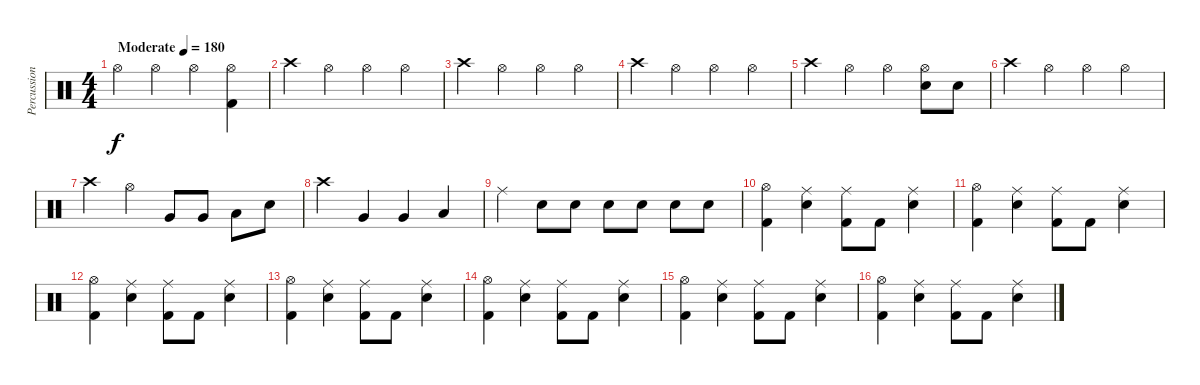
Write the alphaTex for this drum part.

\track ("Percussion" "Percussion") {instrument percussion}
\staff {score}
\articulation defaults
\ts (4 4)
\tempo (180 "Moderate")
\clef neutral
\ks c "Hi-Hat (open)".4{dy f} "Hi-Hat (open)".4 "Hi-Hat (open)".4
("Hi-Hat (open)" "Kick (hit) 2").4 |
"Crash high (hit)".4 "Hi-Hat (open)".4 "Hi-Hat (open)".4 "Hi-Hat (open)".4 |
"Crash high (hit)".4 "Hi-Hat (open)".4 "Hi-Hat (open)".4 "Hi-Hat (open)".4 |
"Crash high (hit)".4 "Hi-Hat (open)".4 "Hi-Hat (open)".4 "Hi-Hat (open)".4 |
"Crash high (hit)".4 "Hi-Hat (open)".4 "Hi-Hat (open)".4 ("Hi-Hat (open)" "Electric Snare (hit)").8 "Electric Snare (hit)".8 |
"Crash high (hit)".4 "Hi-Hat (open)".4 "Hi-Hat (open)".4 "Hi-Hat (open)".4 |
"Crash high (hit)".4 "Hi-Hat (open)".4 "Very Low Tom (hit)".8 "Very Low Tom (hit)".8 "Low Floor Tom (hit)".8 "Electric Snare (hit)".8 |
"Crash high (hit)".4 "Very Low Tom (hit)".4 "Very Low Tom (hit)".4 "Low Floor Tom (hit)".4 |
"Ride (middle)".4 "Electric Snare (hit)".8 "Electric Snare (hit)".8 "Electric Snare (hit)".8 "Electric Snare (hit)".8 "Electric Snare (hit)".8 "Electric Snare (hit)".8 |
("Hi-Hat (open)" "Kick (hit) 2").4 ("Ride (middle)" "Electric Snare (hit)").4 ("Ride (middle)" "Kick (hit) 2").8 "Kick (hit) 2".8 ("Ride (middle)" "Electric Snare (hit)").4 |
("Hi-Hat (open)" "Kick (hit) 2").4 ("Ride (middle)" "Electric Snare (hit)").4 ("Ride (middle)" "Kick (hit) 2").8 "Kick (hit) 2".8 ("Ride (middle)" "Electric Snare (hit)").4 |
("Hi-Hat (open)" "Kick (hit) 2").4 ("Ride (middle)" "Electric Snare (hit)").4 ("Ride (middle)" "Kick (hit) 2").8 "Kick (hit) 2".8 ("Ride (middle)" "Electric Snare (hit)").4 |
("Hi-Hat (open)" "Kick (hit) 2").4 ("Ride (middle)" "Electric Snare (hit)").4 ("Ride (middle)" "Kick (hit) 2").8 "Kick (hit) 2".8 ("Ride (middle)" "Electric Snare (hit)").4 |
("Hi-Hat (open)" "Kick (hit) 2").4 ("Ride (middle)" "Electric Snare (hit)").4 ("Ride (middle)" "Kick (hit) 2").8 "Kick (hit) 2".8 ("Ride (middle)" "Electric Snare (hit)").4 |
("Hi-Hat (open)" "Kick (hit) 2").4 ("Ride (middle)" "Electric Snare (hit)").4 ("Ride (middle)" "Kick (hit) 2").8 "Kick (hit) 2".8 ("Ride (middle)" "Electric Snare (hit)").4 |
("Hi-Hat (open)" "Kick (hit) 2").4 ("Ride (middle)" "Electric Snare (hit)").4 ("Ride (middle)" "Kick (hit) 2").8 "Kick (hit) 2".8 ("Ride (middle)" "Electric Snare (hit)").4
